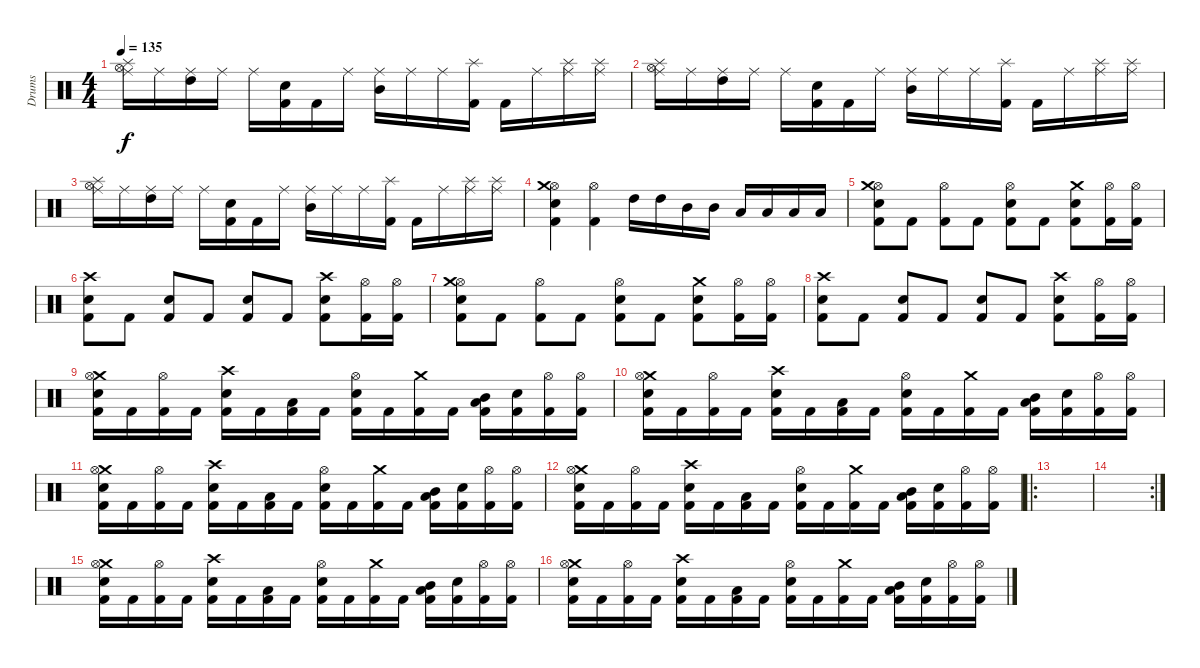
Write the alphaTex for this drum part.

\track ("Drums" "Drums") {instrument percussion}
\staff {score}
\articulation defaults
\ts (4 4)
\tempo 135
\clef neutral
\ks c
("Ride (middle)" "Hi-Hat (open)" "Splash (hit)").16{dy f} "Ride (middle)".16 ("Ride (middle)" "High Tom (hit)").16 "Ride (middle)".16 "Ride (middle)".16 ("Kick (hit) 2" "Electric Snare (hit)").16 "Kick (hit) 2".16 "Ride (middle)".16 ("Ride (middle)" "Mid Tom (hit)").16 "Ride (middle)".16 "Ride (middle)".16 ("Kick (hit) 2" "Splash (hit)").16 "Kick (hit) 2".16 "Ride (middle)".16 ("Ride (middle)" "Splash (hit)").16 ("Ride (middle)" "Splash (hit)").16 |
("Ride (middle)" "Hi-Hat (open)" "Splash (hit)").16 "Ride (middle)".16 ("Ride (middle)" "High Tom (hit)").16 "Ride (middle)".16 "Ride (middle)".16 ("Kick (hit) 2" "Electric Snare (hit)").16 "Kick (hit) 2".16 "Ride (middle)".16 ("Ride (middle)" "Mid Tom (hit)").16 "Ride (middle)".16 "Ride (middle)".16 ("Kick (hit) 2" "Splash (hit)").16 "Kick (hit) 2".16 "Ride (middle)".16 ("Ride (middle)" "Splash (hit)").16 ("Ride (middle)" "Splash (hit)").16 |
("Ride (middle)" "Hi-Hat (open)" "Splash (hit)").16 "Ride (middle)".16 ("Ride (middle)" "High Tom (hit)").16 "Ride (middle)".16 "Ride (middle)".16 ("Kick (hit) 2" "Electric Snare (hit)").16 "Kick (hit) 2".16 "Ride (middle)".16 ("Ride (middle)" "Mid Tom (hit)").16 "Ride (middle)".16 "Ride (middle)".16 ("Kick (hit) 2" "Splash (hit)").16 "Kick (hit) 2".16 "Ride (middle)".16 ("Ride (middle)" "Splash (hit)").16 ("Ride (middle)" "Splash (hit)").16 |
("Electric Snare (hit)" "Hi-Hat (open)" "Crash medium (hit)" "Kick (hit) 2").4 ("Kick (hit) 2" "Hi-Hat (open)").4 "High Tom (hit)".16 "High Tom (hit)".16 "Mid Tom (hit)".16 "Mid Tom (hit)".16 "Low Tom (hit)".16 "Low Tom (hit)".16 "Low Floor Tom (hit)".16 "Low Floor Tom (hit)".16 |
("Kick (hit) 2" "Hi-Hat (open)" "Electric Snare (hit)" "Crash medium (hit)").8 "Kick (hit) 2".8 ("Kick (hit) 2" "Hi-Hat (open)").8 "Kick (hit) 2".8 ("Kick (hit) 2" "Hi-Hat (open)" "Electric Snare (hit)").8 "Kick (hit) 2".8 ("Kick (hit) 2" "Crash medium (hit)" "Electric Snare (hit)").8 ("Kick (hit) 2" "Hi-Hat (open)").16 ("Kick (hit) 2" "Hi-Hat (open)").16 |
("Kick (hit) 2" "Electric Snare (hit)" "Crash high (hit)").8 "Kick (hit) 2".8 ("Kick (hit) 2" "Snare (hit) 2").8 "Kick (hit) 2".8 ("Kick (hit) 2" "Electric Snare (hit)").8 "Kick (hit) 2".8 ("Kick (hit) 2" "Crash high (hit)" "Electric Snare (hit)").8 ("Kick (hit) 2" "Hi-Hat (open)").16 ("Kick (hit) 2" "Hi-Hat (open)").16 |
("Kick (hit) 2" "Hi-Hat (open)" "Electric Snare (hit)" "Crash medium (hit)").8 "Kick (hit) 2".8 ("Kick (hit) 2" "Hi-Hat (open)").8 "Kick (hit) 2".8 ("Kick (hit) 2" "Hi-Hat (open)" "Electric Snare (hit)").8 "Kick (hit) 2".8 ("Kick (hit) 2" "Crash medium (hit)" "Electric Snare (hit)").8 ("Kick (hit) 2" "Hi-Hat (open)").16 ("Kick (hit) 2" "Hi-Hat (open)").16 |
("Kick (hit) 2" "Electric Snare (hit)" "Crash high (hit)").8 "Kick (hit) 2".8 ("Kick (hit) 2" "Snare (hit) 2").8 "Kick (hit) 2".8 ("Kick (hit) 2" "Electric Snare (hit)").8 "Kick (hit) 2".8 ("Kick (hit) 2" "Crash high (hit)" "Electric Snare (hit)").8 ("Kick (hit) 2" "Hi-Hat (open)").16 ("Kick (hit) 2" "Hi-Hat (open)").16 |
("Kick (hit) 2" "Crash medium (hit)" "Hi-Hat (open)" "Electric Snare (hit)").16 "Kick (hit) 2".16 ("Kick (hit) 2" "Hi-Hat (open)").16 "Kick (hit) 2".16 ("Kick (hit) 2" "Crash high (hit)" "Electric Snare (hit)").16 "Kick (hit) 2".16 ("Kick (hit) 2" "Low Floor Tom (hit)").16 "Kick (hit) 2".16 ("Kick (hit) 2" "Hi-Hat (open)" "Electric Snare (hit)").16 "Kick (hit) 2".16 ("Kick (hit) 2" "Crash medium (hit)").16 "Kick (hit) 2".16 ("Kick (hit) 2" "Low Floor Tom (hit)" "Mid Tom (hit)").16 ("Kick (hit) 2" "Electric Snare (hit)").16 ("Kick (hit) 2" "Hi-Hat (open)").16 ("Kick (hit) 2" "Hi-Hat (open)").16 |
("Kick (hit) 2" "Crash medium (hit)" "Hi-Hat (open)" "Electric Snare (hit)").16 "Kick (hit) 2".16 ("Kick (hit) 2" "Hi-Hat (open)").16 "Kick (hit) 2".16 ("Kick (hit) 2" "Crash high (hit)" "Electric Snare (hit)").16 "Kick (hit) 2".16 ("Kick (hit) 2" "Low Floor Tom (hit)").16 "Kick (hit) 2".16 ("Kick (hit) 2" "Hi-Hat (open)" "Electric Snare (hit)").16 "Kick (hit) 2".16 ("Kick (hit) 2" "Crash medium (hit)").16 "Kick (hit) 2".16 ("Kick (hit) 2" "Low Floor Tom (hit)" "Mid Tom (hit)").16 ("Kick (hit) 2" "Electric Snare (hit)").16 ("Kick (hit) 2" "Hi-Hat (open)").16 ("Kick (hit) 2" "Hi-Hat (open)").16 |
("Kick (hit) 2" "Crash medium (hit)" "Hi-Hat (open)" "Electric Snare (hit)").16 "Kick (hit) 2".16 ("Kick (hit) 2" "Hi-Hat (open)").16 "Kick (hit) 2".16 ("Kick (hit) 2" "Crash high (hit)" "Electric Snare (hit)").16 "Kick (hit) 2".16 ("Kick (hit) 2" "Low Floor Tom (hit)").16 "Kick (hit) 2".16 ("Kick (hit) 2" "Hi-Hat (open)" "Electric Snare (hit)").16 "Kick (hit) 2".16 ("Kick (hit) 2" "Crash medium (hit)").16 "Kick (hit) 2".16 ("Kick (hit) 2" "Low Floor Tom (hit)" "Mid Tom (hit)").16 ("Kick (hit) 2" "Electric Snare (hit)").16 ("Kick (hit) 2" "Hi-Hat (open)").16 ("Kick (hit) 2" "Hi-Hat (open)").16 |
("Kick (hit) 2" "Crash medium (hit)" "Hi-Hat (open)" "Electric Snare (hit)").16 "Kick (hit) 2".16 ("Kick (hit) 2" "Hi-Hat (open)").16 "Kick (hit) 2".16 ("Kick (hit) 2" "Crash high (hit)" "Electric Snare (hit)").16 "Kick (hit) 2".16 ("Kick (hit) 2" "Low Floor Tom (hit)").16 "Kick (hit) 2".16 ("Kick (hit) 2" "Hi-Hat (open)" "Electric Snare (hit)").16 "Kick (hit) 2".16 ("Kick (hit) 2" "Crash medium (hit)").16 "Kick (hit) 2".16 ("Kick (hit) 2" "Low Floor Tom (hit)" "Mid Tom (hit)").16 ("Kick (hit) 2" "Electric Snare (hit)").16 ("Kick (hit) 2" "Hi-Hat (open)").16 ("Kick (hit) 2" "Hi-Hat (open)").16 |
\ro
|
\rc 2
|
("Kick (hit) 2" "Crash medium (hit)" "Hi-Hat (open)" "Electric Snare (hit)").16 "Kick (hit) 2".16 ("Kick (hit) 2" "Hi-Hat (open)").16 "Kick (hit) 2".16 ("Kick (hit) 2" "Crash high (hit)" "Electric Snare (hit)").16 "Kick (hit) 2".16 ("Kick (hit) 2" "Low Floor Tom (hit)").16 "Kick (hit) 2".16 ("Kick (hit) 2" "Hi-Hat (open)" "Electric Snare (hit)").16 "Kick (hit) 2".16 ("Kick (hit) 2" "Crash medium (hit)").16 "Kick (hit) 2".16 ("Kick (hit) 2" "Low Floor Tom (hit)" "Mid Tom (hit)").16 ("Kick (hit) 2" "Electric Snare (hit)").16 ("Kick (hit) 2" "Hi-Hat (open)").16 ("Kick (hit) 2" "Hi-Hat (open)").16 |
("Kick (hit) 2" "Crash medium (hit)" "Hi-Hat (open)" "Electric Snare (hit)").16 "Kick (hit) 2".16 ("Kick (hit) 2" "Hi-Hat (open)").16 "Kick (hit) 2".16 ("Kick (hit) 2" "Crash high (hit)" "Electric Snare (hit)").16 "Kick (hit) 2".16 ("Kick (hit) 2" "Low Floor Tom (hit)").16 "Kick (hit) 2".16 ("Kick (hit) 2" "Hi-Hat (open)" "Electric Snare (hit)").16 "Kick (hit) 2".16 ("Kick (hit) 2" "Crash medium (hit)").16 "Kick (hit) 2".16 ("Kick (hit) 2" "Low Floor Tom (hit)" "Mid Tom (hit)").16 ("Kick (hit) 2" "Electric Snare (hit)").16 ("Kick (hit) 2" "Hi-Hat (open)").16 ("Kick (hit) 2" "Hi-Hat (open)").16
